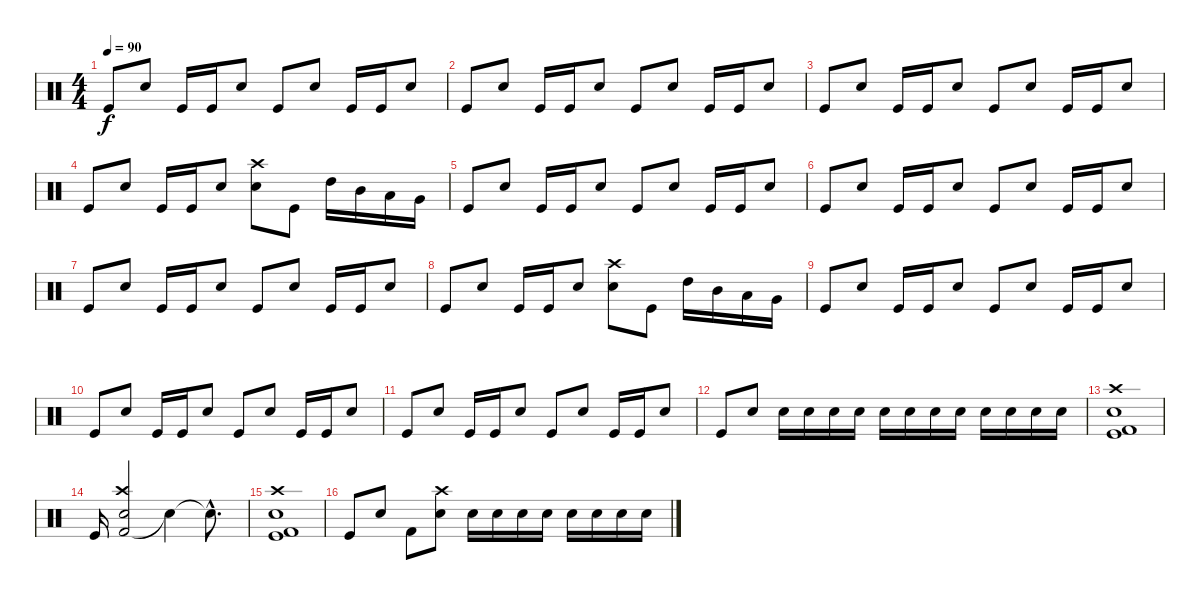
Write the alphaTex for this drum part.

\track "" {instrument percussion}
\staff {score}
\articulation defaults
\ts (4 4)
\tempo 90
\clef neutral
\ks c "Kick (hit)".8{dy f} "Snare (hit) 2".8 "Kick (hit)".16 "Kick (hit)".16 "Snare (hit) 2".8 "Kick (hit)".8 "Snare (hit) 2".8 "Kick (hit)".16 "Kick (hit)".16 "Snare (hit) 2".8
|
"Kick (hit)".8 "Snare (hit) 2".8 "Kick (hit)".16 "Kick (hit)".16 "Snare (hit) 2".8 "Kick (hit)".8 "Snare (hit) 2".8 "Kick (hit)".16 "Kick (hit)".16 "Snare (hit) 2".8 |
"Kick (hit)".8 "Snare (hit) 2".8 "Kick (hit)".16 "Kick (hit)".16 "Snare (hit) 2".8 "Kick (hit)".8 "Snare (hit) 2".8 "Kick (hit)".16 "Kick (hit)".16 "Snare (hit) 2".8 |
"Kick (hit)".8 "Snare (hit) 2".8 "Kick (hit)".16 "Kick (hit)".16 "Snare (hit) 2".8 ("Snare (hit) 2" "Crash high (hit)").8 "Kick (hit)".8 "High Tom (hit)".16 "Mid Tom (hit)".16 "Low Tom (hit)".16 "Very Low Tom (hit)".16 |
"Kick (hit)".8 "Snare (hit) 2".8 "Kick (hit)".16 "Kick (hit)".16 "Snare (hit) 2".8 "Kick (hit)".8 "Snare (hit) 2".8 "Kick (hit)".16 "Kick (hit)".16 "Snare (hit) 2".8 |
"Kick (hit)".8 "Snare (hit) 2".8 "Kick (hit)".16 "Kick (hit)".16 "Snare (hit) 2".8 "Kick (hit)".8 "Snare (hit) 2".8 "Kick (hit)".16 "Kick (hit)".16 "Snare (hit) 2".8 |
"Kick (hit)".8 "Snare (hit) 2".8 "Kick (hit)".16 "Kick (hit)".16 "Snare (hit) 2".8 "Kick (hit)".8 "Snare (hit) 2".8 "Kick (hit)".16 "Kick (hit)".16 "Snare (hit) 2".8 |
"Kick (hit)".8 "Snare (hit) 2".8 "Kick (hit)".16 "Kick (hit)".16 "Snare (hit) 2".8 ("Snare (hit) 2" "Crash high (hit)").8 "Kick (hit)".8 "High Tom (hit)".16 "Mid Tom (hit)".16 "Low Tom (hit)".16 "Very Low Tom (hit)".16 |
"Kick (hit)".8 "Snare (hit) 2".8 "Kick (hit)".16 "Kick (hit)".16 "Snare (hit) 2".8 "Kick (hit)".8 "Snare (hit) 2".8 "Kick (hit)".16 "Kick (hit)".16 "Snare (hit) 2".8 |
"Kick (hit)".8 "Snare (hit) 2".8 "Kick (hit)".16 "Kick (hit)".16 "Snare (hit) 2".8 "Kick (hit)".8 "Snare (hit) 2".8 "Kick (hit)".16 "Kick (hit)".16 "Snare (hit) 2".8 |
"Kick (hit)".8 "Snare (hit) 2".8 "Kick (hit)".16 "Kick (hit)".16 "Snare (hit) 2".8 "Kick (hit)".8 "Snare (hit) 2".8 "Kick (hit)".16 "Kick (hit)".16 "Snare (hit) 2".8 |
"Kick (hit)".8 "Snare (hit) 2".8 "Snare (hit) 2".16 "Snare (hit) 2".16 "Snare (hit) 2".16 "Snare (hit) 2".16 "Snare (hit) 2".16 "Snare (hit) 2".16 "Snare (hit) 2".16 "Snare (hit) 2".16 "Snare (hit) 2".16 "Snare (hit) 2".16 "Snare (hit) 2".16 "Snare (hit) 2".16 |
("Kick (hit) 2" "Kick (hit)" "Crash high (hit)" "Snare (hit) 2").1 |
"Kick (hit)".16 ("Kick (hit) 2" "Snare (hit) 2" "Crash high (hit)").2 "Snare (hit)"{t}.4 "Snare (hit)"{hac t}.8{d} |
("Kick (hit) 2" "Kick (hit)" "Crash high (hit)" "Snare (hit) 2").1 |
"Kick (hit)".8 "Snare (hit) 2".8 "Kick (hit) 2".8 ("Crash high (hit)" "Snare (hit) 2").8 "Snare (hit) 2".16 "Snare (hit) 2".16 "Snare (hit) 2".16 "Snare (hit) 2".16 "Snare (hit) 2".16 "Snare (hit) 2".16 "Snare (hit) 2".16 "Snare (hit) 2".16
